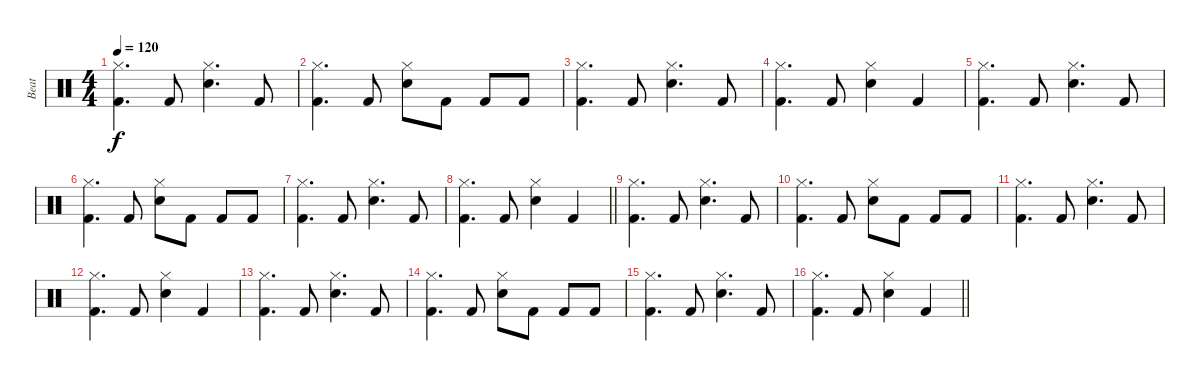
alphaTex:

\track ("Beat" "Beat") {instrument percussion}
\staff {score}
\articulation defaults
\ts (4 4)
\tempo 120
\clef neutral
\ks c
("Hi-Hat (closed)" "Kick (hit) 2").4{d dy f} "Kick (hit) 2".8 ("Hi-Hat (closed)" "Snare (hit) 2").4{d} "Kick (hit) 2".8 |
("Hi-Hat (closed)" "Kick (hit) 2").4{d} "Kick (hit) 2".8 ("Hi-Hat (closed)" "Snare (hit) 2").8 "Kick (hit) 2".8 "Kick (hit) 2".8 "Kick (hit) 2".8 |
("Hi-Hat (closed)" "Kick (hit) 2").4{d} "Kick (hit) 2".8 ("Hi-Hat (closed)" "Snare (hit) 2").4{d} "Kick (hit) 2".8 |
("Hi-Hat (closed)" "Kick (hit) 2").4{d} "Kick (hit) 2".8 ("Hi-Hat (closed)" "Snare (hit) 2").4 "Kick (hit) 2".4 |
("Hi-Hat (closed)" "Kick (hit) 2").4{d} "Kick (hit) 2".8 ("Hi-Hat (closed)" "Snare (hit) 2").4{d} "Kick (hit) 2".8 |
("Hi-Hat (closed)" "Kick (hit) 2").4{d} "Kick (hit) 2".8 ("Hi-Hat (closed)" "Snare (hit) 2").8 "Kick (hit) 2".8 "Kick (hit) 2".8 "Kick (hit) 2".8 |
("Hi-Hat (closed)" "Kick (hit) 2").4{d} "Kick (hit) 2".8 ("Hi-Hat (closed)" "Snare (hit) 2").4{d} "Kick (hit) 2".8 |
\barLineRight lightlight
("Hi-Hat (closed)" "Kick (hit) 2").4{d} "Kick (hit) 2".8 ("Hi-Hat (closed)" "Snare (hit) 2").4 "Kick (hit) 2".4 |
("Hi-Hat (closed)" "Kick (hit) 2").4{d} "Kick (hit) 2".8 ("Hi-Hat (closed)" "Snare (hit) 2").4{d} "Kick (hit) 2".8 |
("Hi-Hat (closed)" "Kick (hit) 2").4{d} "Kick (hit) 2".8 ("Hi-Hat (closed)" "Snare (hit) 2").8 "Kick (hit) 2".8 "Kick (hit) 2".8 "Kick (hit) 2".8 |
("Hi-Hat (closed)" "Kick (hit) 2").4{d} "Kick (hit) 2".8 ("Hi-Hat (closed)" "Snare (hit) 2").4{d} "Kick (hit) 2".8 |
("Hi-Hat (closed)" "Kick (hit) 2").4{d} "Kick (hit) 2".8 ("Hi-Hat (closed)" "Snare (hit) 2").4 "Kick (hit) 2".4 |
("Hi-Hat (closed)" "Kick (hit) 2").4{d} "Kick (hit) 2".8 ("Hi-Hat (closed)" "Snare (hit) 2").4{d} "Kick (hit) 2".8 |
("Hi-Hat (closed)" "Kick (hit) 2").4{d} "Kick (hit) 2".8 ("Hi-Hat (closed)" "Snare (hit) 2").8 "Kick (hit) 2".8 "Kick (hit) 2".8 "Kick (hit) 2".8 |
("Hi-Hat (closed)" "Kick (hit) 2").4{d} "Kick (hit) 2".8 ("Hi-Hat (closed)" "Snare (hit) 2").4{d} "Kick (hit) 2".8 |
\barLineRight lightlight
("Hi-Hat (closed)" "Kick (hit) 2").4{d} "Kick (hit) 2".8 ("Hi-Hat (closed)" "Snare (hit) 2").4 "Kick (hit) 2".4
